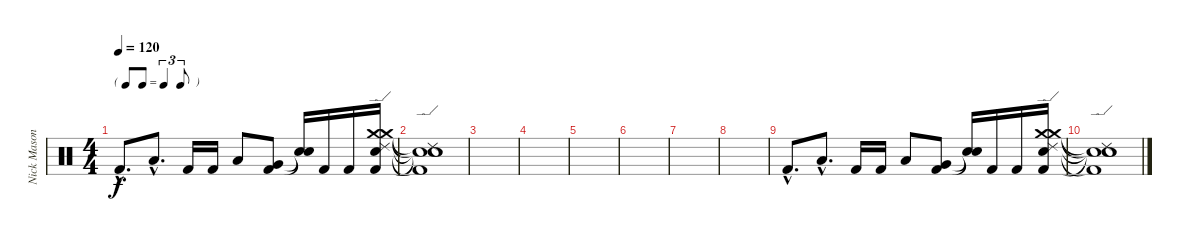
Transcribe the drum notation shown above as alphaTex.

\track ("Nick Mason" "Nick Mason") {instrument percussion}
\staff {score}
\articulation defaults
\ts (4 4)
\tf triplet8th
\tempo 120
\clef neutral
\ks c "Kick (hit) 2"{hac}.8{d dy f} "Low Tom (hit)"{hac}.8{d} "Kick (hit) 2".16 "Kick (hit) 2".16 "Low Tom (hit)".8
("Very Low Tom (hit)" "Kick (hit) 2").8 ("Snare (hit)"{t} "Snare (hit)"{t}).16 "Kick (hit) 2".16 "Kick (hit) 2".16 ("Crash medium (hit)" "Crash medium (hit)" "Electric Snare (hit)" "Kick (hit) 2" "Ride (edge) 2").16 |
("Ride (edge) 2"{t} "Electric Snare (hit)"{t} "Kick (hit) 2"{t} "Snare (hit)"{t} "Snare (hit)"{t}).1 |
|
|
|
|
|
|
"Kick (hit) 2"{hac}.8{d} "Low Tom (hit)"{hac}.8{d} "Kick (hit) 2".16 "Kick (hit) 2".16 "Low Tom (hit)".8 ("Very Low Tom (hit)" "Kick (hit) 2").8 ("Snare (hit)"{t} "Snare (hit)"{t}).16 "Kick (hit) 2".16 "Kick (hit) 2".16 ("Crash medium (hit)" "Crash medium (hit)" "Electric Snare (hit)" "Kick (hit) 2" "Ride (edge) 2").16 |
("Ride (edge) 2"{t} "Electric Snare (hit)"{t} "Kick (hit) 2"{t} "Snare (hit)"{t} "Snare (hit)"{t}).1
